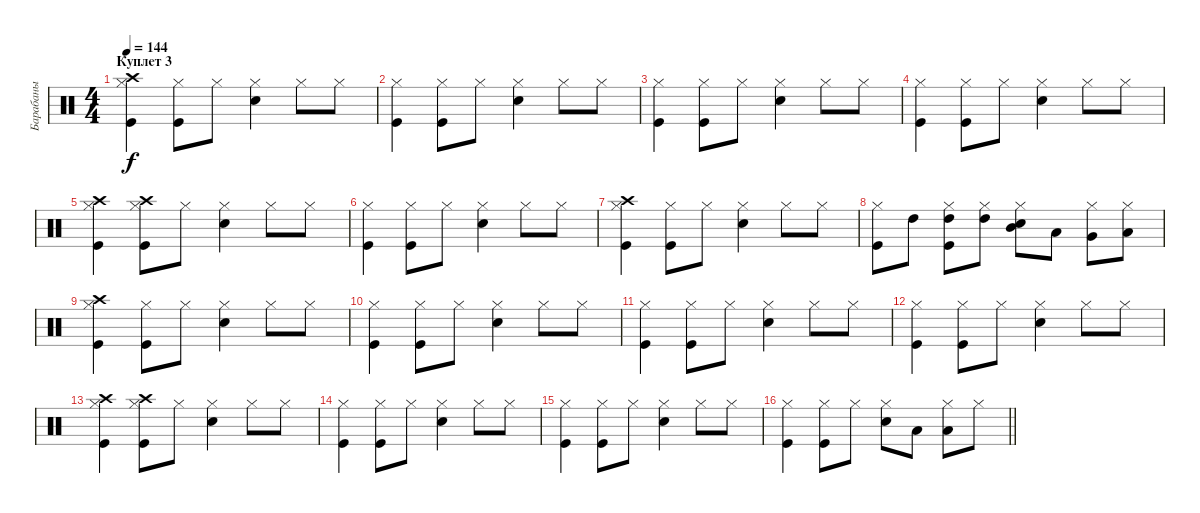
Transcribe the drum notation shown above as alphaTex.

\track ("Барабаны" "Барабаны") {instrument percussion}
\staff {score}
\articulation defaults
\ts (4 4)
\section ("" "Куплет 3")
\tempo 144
\clef neutral
\ks c
("Kick (hit)" "Hi-Hat (closed)" "Crash high (hit)").4{dy f} ("Kick (hit)" "Hi-Hat (closed)").8 "Hi-Hat (closed)".8 ("Snare (hit) 2" "Hi-Hat (closed)").4 "Hi-Hat (closed)".8 "Hi-Hat (closed)".8 |
("Kick (hit)" "Hi-Hat (closed)").4 ("Kick (hit)" "Hi-Hat (closed)").8 "Hi-Hat (closed)".8 ("Snare (hit) 2" "Hi-Hat (closed)").4 "Hi-Hat (closed)".8 "Hi-Hat (closed)".8 |
("Kick (hit)" "Hi-Hat (closed)").4 ("Kick (hit)" "Hi-Hat (closed)").8 "Hi-Hat (closed)".8 ("Snare (hit) 2" "Hi-Hat (closed)").4 "Hi-Hat (closed)".8 "Hi-Hat (closed)".8 |
("Kick (hit)" "Hi-Hat (closed)").4 ("Kick (hit)" "Hi-Hat (closed)").8 "Hi-Hat (closed)".8 ("Snare (hit) 2" "Hi-Hat (closed)").4 "Hi-Hat (closed)".8 "Hi-Hat (closed)".8 |
("Kick (hit)" "Hi-Hat (closed)" "Crash high (hit)").4 ("Kick (hit)" "Hi-Hat (closed)" "Crash high (hit)").8 "Hi-Hat (closed)".8 ("Snare (hit) 2" "Hi-Hat (closed)").4 "Hi-Hat (closed)".8 "Hi-Hat (closed)".8 |
("Kick (hit)" "Hi-Hat (closed)").4 ("Kick (hit)" "Hi-Hat (closed)").8 "Hi-Hat (closed)".8 ("Snare (hit) 2" "Hi-Hat (closed)").4 "Hi-Hat (closed)".8 "Hi-Hat (closed)".8 |
("Kick (hit)" "Hi-Hat (closed)" "Crash high (hit)").4 ("Kick (hit)" "Hi-Hat (closed)").8 "Hi-Hat (closed)".8 ("Snare (hit) 2" "Hi-Hat (closed)").4 "Hi-Hat (closed)".8 "Hi-Hat (closed)".8 |
("Kick (hit)" "Hi-Hat (closed)").8 "High Tom (hit)".8 ("Kick (hit)" "Hi-Hat (closed)" "High Tom (hit)").8 ("Hi-Hat (closed)" "High Tom (hit)").8 ("Snare (hit) 2" "Hi-Hat (closed)" "Mid Tom (hit)").8 "Low Tom (hit)".8 ("Hi-Hat (closed)" "Very Low Tom (hit)").8 ("Hi-Hat (closed)" "Low Floor Tom (hit)").8 |
("Kick (hit)" "Hi-Hat (closed)" "Crash high (hit)").4 ("Kick (hit)" "Hi-Hat (closed)").8 "Hi-Hat (closed)".8 ("Snare (hit) 2" "Hi-Hat (closed)").4 "Hi-Hat (closed)".8 "Hi-Hat (closed)".8 |
("Kick (hit)" "Hi-Hat (closed)").4 ("Kick (hit)" "Hi-Hat (closed)").8 "Hi-Hat (closed)".8 ("Snare (hit) 2" "Hi-Hat (closed)").4 "Hi-Hat (closed)".8 "Hi-Hat (closed)".8 |
("Kick (hit)" "Hi-Hat (closed)").4 ("Kick (hit)" "Hi-Hat (closed)").8 "Hi-Hat (closed)".8 ("Snare (hit) 2" "Hi-Hat (closed)").4 "Hi-Hat (closed)".8 "Hi-Hat (closed)".8 |
("Kick (hit)" "Hi-Hat (closed)").4 ("Kick (hit)" "Hi-Hat (closed)").8 "Hi-Hat (closed)".8 ("Snare (hit) 2" "Hi-Hat (closed)").4 "Hi-Hat (closed)".8 "Hi-Hat (closed)".8 |
("Kick (hit)" "Hi-Hat (closed)" "Crash high (hit)").4 ("Kick (hit)" "Hi-Hat (closed)" "Crash high (hit)").8 "Hi-Hat (closed)".8 ("Snare (hit) 2" "Hi-Hat (closed)").4 "Hi-Hat (closed)".8 "Hi-Hat (closed)".8 |
("Kick (hit)" "Hi-Hat (closed)").4 ("Kick (hit)" "Hi-Hat (closed)").8 "Hi-Hat (closed)".8 ("Snare (hit) 2" "Hi-Hat (closed)").4 "Hi-Hat (closed)".8 "Hi-Hat (closed)".8 |
("Kick (hit)" "Hi-Hat (closed)").4 ("Kick (hit)" "Hi-Hat (closed)").8 "Hi-Hat (closed)".8 ("Snare (hit) 2" "Hi-Hat (closed)").4 "Hi-Hat (closed)".8 "Hi-Hat (closed)".8 |
\barLineRight lightlight
("Kick (hit)" "Hi-Hat (closed)").4 ("Kick (hit)" "Hi-Hat (closed)").8 "Hi-Hat (closed)".8 ("Snare (hit) 2" "Hi-Hat (closed)").8 "Low Tom (hit)".8 ("Hi-Hat (closed)" "Low Tom (hit)").8 "Hi-Hat (closed)".8
